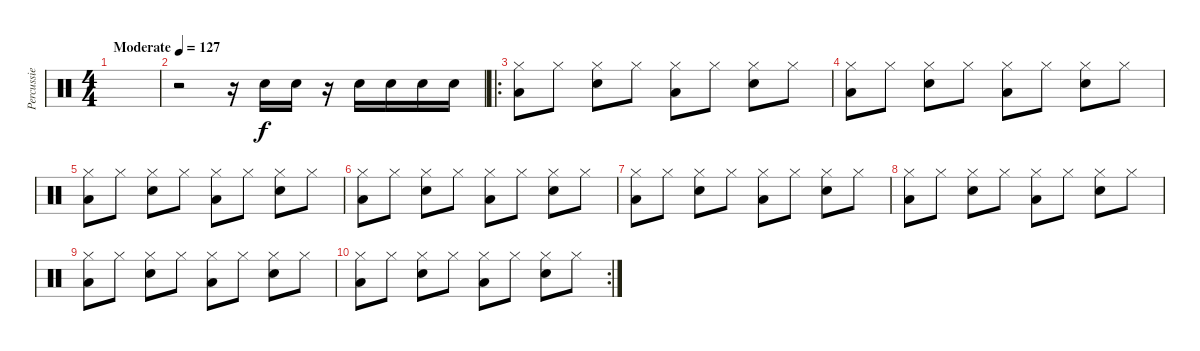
\track ("Percussie" "Percussie") {instrument percussion}
\staff {score}
\articulation defaults
\ts (4 4)
\tempo (127 "Moderate")
\clef neutral
\ks c
|
r.2 r.16 "Electric Snare (hit)".16 "Electric Snare (hit)".16 r.16 "Electric Snare (hit)".16 "Electric Snare (hit)".16 "Electric Snare (hit)".16 "Electric Snare (hit)".16 |
\ro
("Hi-Hat (closed)" "Low Floor Tom (hit)").8 "Hi-Hat (closed)".8 ("Hi-Hat (closed)" "Electric Snare (hit)").8 "Hi-Hat (closed)".8 ("Hi-Hat (closed)" "Low Floor Tom (hit)").8 "Hi-Hat (closed)".8 ("Hi-Hat (closed)" "Electric Snare (hit)").8 "Hi-Hat (closed)".8 |
("Hi-Hat (closed)" "Low Floor Tom (hit)").8 "Hi-Hat (closed)".8 ("Hi-Hat (closed)" "Electric Snare (hit)").8 "Hi-Hat (closed)".8 ("Hi-Hat (closed)" "Low Floor Tom (hit)").8 "Hi-Hat (closed)".8 ("Hi-Hat (closed)" "Electric Snare (hit)").8 "Hi-Hat (closed)".8 |
("Hi-Hat (closed)" "Low Floor Tom (hit)").8 "Hi-Hat (closed)".8 ("Hi-Hat (closed)" "Electric Snare (hit)").8 "Hi-Hat (closed)".8 ("Hi-Hat (closed)" "Low Floor Tom (hit)").8 "Hi-Hat (closed)".8 ("Hi-Hat (closed)" "Electric Snare (hit)").8 "Hi-Hat (closed)".8 |
("Hi-Hat (closed)" "Low Floor Tom (hit)").8 "Hi-Hat (closed)".8 ("Hi-Hat (closed)" "Electric Snare (hit)").8 "Hi-Hat (closed)".8 ("Hi-Hat (closed)" "Low Floor Tom (hit)").8 "Hi-Hat (closed)".8 ("Hi-Hat (closed)" "Electric Snare (hit)").8 "Hi-Hat (closed)".8 |
("Hi-Hat (closed)" "Low Floor Tom (hit)").8 "Hi-Hat (closed)".8 ("Hi-Hat (closed)" "Electric Snare (hit)").8 "Hi-Hat (closed)".8 ("Hi-Hat (closed)" "Low Floor Tom (hit)").8 "Hi-Hat (closed)".8 ("Hi-Hat (closed)" "Electric Snare (hit)").8 "Hi-Hat (closed)".8 |
("Hi-Hat (closed)" "Low Floor Tom (hit)").8 "Hi-Hat (closed)".8 ("Hi-Hat (closed)" "Electric Snare (hit)").8 "Hi-Hat (closed)".8 ("Hi-Hat (closed)" "Low Floor Tom (hit)").8 "Hi-Hat (closed)".8 ("Hi-Hat (closed)" "Electric Snare (hit)").8 "Hi-Hat (closed)".8 |
("Hi-Hat (closed)" "Low Floor Tom (hit)").8 "Hi-Hat (closed)".8 ("Hi-Hat (closed)" "Electric Snare (hit)").8 "Hi-Hat (closed)".8 ("Hi-Hat (closed)" "Low Floor Tom (hit)").8 "Hi-Hat (closed)".8 ("Hi-Hat (closed)" "Electric Snare (hit)").8 "Hi-Hat (closed)".8 |
\rc 2
("Hi-Hat (closed)" "Low Floor Tom (hit)").8 "Hi-Hat (closed)".8 ("Hi-Hat (closed)" "Electric Snare (hit)").8 "Hi-Hat (closed)".8 ("Hi-Hat (closed)" "Low Floor Tom (hit)").8 "Hi-Hat (closed)".8 ("Hi-Hat (closed)" "Electric Snare (hit)").8 "Hi-Hat (closed)".8
